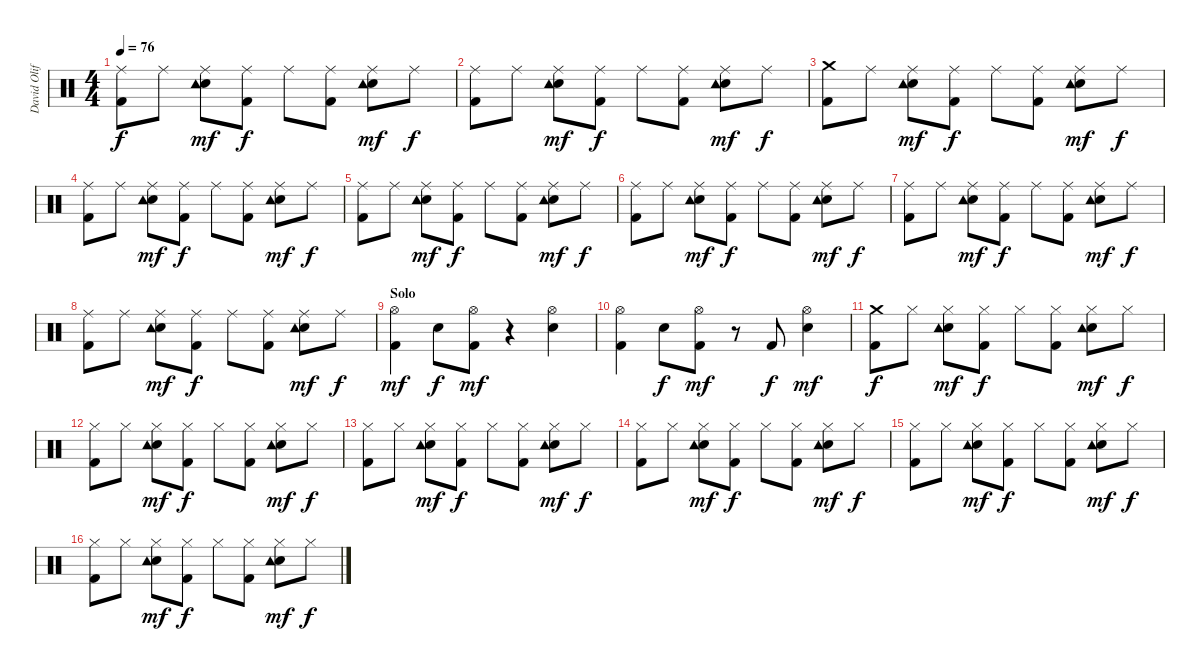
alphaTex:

\track ("David Oliffe (Drum)" "David Olif") {instrument percussion}
\staff {score}
\articulation defaults
\ts (4 4)
\tempo 76
\clef neutral
\ks c
("Ride (middle)" "Kick (hit) 2").8{dy f} "Ride (middle)".8 ("Ride (middle)" "Electric Snare (hit)" "Tambourine (hit)").8{dy mf} ("Ride (middle)" "Kick (hit) 2").8{dy f} "Ride (middle)".8 ("Ride (middle)" "Kick (hit) 2").8 ("Ride (middle)" "Electric Snare (hit)" "Tambourine (hit)").8{dy mf} "Ride (middle)".8{dy f} |
("Ride (middle)" "Kick (hit) 2").8 "Ride (middle)".8 ("Ride (middle)" "Electric Snare (hit)" "Tambourine (hit)").8{dy mf} ("Ride (middle)" "Kick (hit) 2").8{dy f} "Ride (middle)".8 ("Ride (middle)" "Kick (hit) 2").8 ("Ride (middle)" "Electric Snare (hit)" "Tambourine (hit)").8{dy mf} "Ride (middle)".8{dy f} |
("Crash medium (hit)" "Kick (hit) 2").8 "Ride (middle)".8 ("Ride (middle)" "Electric Snare (hit)" "Tambourine (hit)").8{dy mf} ("Ride (middle)" "Kick (hit) 2").8{dy f} "Ride (middle)".8 ("Ride (middle)" "Kick (hit) 2").8 ("Ride (middle)" "Electric Snare (hit)" "Tambourine (hit)").8{dy mf} "Ride (middle)".8{dy f} |
("Ride (middle)" "Kick (hit) 2").8 "Ride (middle)".8 ("Ride (middle)" "Electric Snare (hit)" "Tambourine (hit)").8{dy mf} ("Ride (middle)" "Kick (hit) 2").8{dy f} "Ride (middle)".8 ("Ride (middle)" "Kick (hit) 2").8 ("Ride (middle)" "Electric Snare (hit)" "Tambourine (hit)").8{dy mf} "Ride (middle)".8{dy f} |
("Ride (middle)" "Kick (hit) 2").8 "Ride (middle)".8 ("Ride (middle)" "Electric Snare (hit)" "Tambourine (hit)").8{dy mf} ("Ride (middle)" "Kick (hit) 2").8{dy f} "Ride (middle)".8 ("Ride (middle)" "Kick (hit) 2").8 ("Ride (middle)" "Electric Snare (hit)" "Tambourine (hit)").8{dy mf} "Ride (middle)".8{dy f} |
("Ride (middle)" "Kick (hit) 2").8 "Ride (middle)".8 ("Ride (middle)" "Electric Snare (hit)" "Tambourine (hit)").8{dy mf} ("Ride (middle)" "Kick (hit) 2").8{dy f} "Ride (middle)".8 ("Ride (middle)" "Kick (hit) 2").8 ("Ride (middle)" "Electric Snare (hit)" "Tambourine (hit)").8{dy mf} "Ride (middle)".8{dy f} |
("Ride (middle)" "Kick (hit) 2").8 "Ride (middle)".8 ("Ride (middle)" "Electric Snare (hit)" "Tambourine (hit)").8{dy mf} ("Ride (middle)" "Kick (hit) 2").8{dy f} "Ride (middle)".8 ("Ride (middle)" "Kick (hit) 2").8 ("Ride (middle)" "Electric Snare (hit)" "Tambourine (hit)").8{dy mf} "Ride (middle)".8{dy f} |
("Ride (middle)" "Kick (hit) 2").8 "Ride (middle)".8 ("Ride (middle)" "Electric Snare (hit)" "Tambourine (hit)").8{dy mf} ("Ride (middle)" "Kick (hit) 2").8{dy f} "Ride (middle)".8 ("Ride (middle)" "Kick (hit) 2").8 ("Ride (middle)" "Electric Snare (hit)" "Tambourine (hit)").8{dy mf} "Ride (middle)".8{dy f} |
\section ("" "Solo")
("Hi-Hat (open)" "Kick (hit) 2").4{dy mf} "Electric Snare (hit)".8{dy f} ("Hi-Hat (open)" "Kick (hit) 2").8{dy mf} r.4 ("Hi-Hat (open)" "Electric Snare (hit)").4 |
("Hi-Hat (open)" "Kick (hit) 2").4 "Electric Snare (hit)".8{dy f} ("Hi-Hat (open)" "Kick (hit) 2").8{dy mf} r.8 "Kick (hit) 2".8{dy f} ("Hi-Hat (open)" "Electric Snare (hit)").4{dy mf} |
("Crash medium (hit)" "Kick (hit) 2").8{dy f} "Hi-Hat (closed)".8 ("Hi-Hat (closed)" "Electric Snare (hit)" "Tambourine (hit)").8{dy mf} ("Hi-Hat (closed)" "Kick (hit) 2").8{dy f} "Hi-Hat (closed)".8 ("Hi-Hat (closed)" "Kick (hit) 2").8 ("Hi-Hat (closed)" "Electric Snare (hit)" "Tambourine (hit)").8{dy mf} "Hi-Hat (closed)".8{dy f} |
("Hi-Hat (closed)" "Kick (hit) 2").8 "Hi-Hat (closed)".8 ("Hi-Hat (closed)" "Electric Snare (hit)" "Tambourine (hit)").8{dy mf} ("Hi-Hat (closed)" "Kick (hit) 2").8{dy f} "Hi-Hat (closed)".8 ("Hi-Hat (closed)" "Kick (hit) 2").8 ("Hi-Hat (closed)" "Electric Snare (hit)" "Tambourine (hit)").8{dy mf} "Hi-Hat (closed)".8{dy f} |
("Hi-Hat (closed)" "Kick (hit) 2").8 "Hi-Hat (closed)".8 ("Hi-Hat (closed)" "Electric Snare (hit)" "Tambourine (hit)").8{dy mf} ("Hi-Hat (closed)" "Kick (hit) 2").8{dy f} "Hi-Hat (closed)".8 ("Hi-Hat (closed)" "Kick (hit) 2").8 ("Hi-Hat (closed)" "Electric Snare (hit)" "Tambourine (hit)").8{dy mf} "Hi-Hat (closed)".8{dy f} |
("Hi-Hat (closed)" "Kick (hit) 2").8 "Hi-Hat (closed)".8 ("Hi-Hat (closed)" "Electric Snare (hit)" "Tambourine (hit)").8{dy mf} ("Hi-Hat (closed)" "Kick (hit) 2").8{dy f} "Hi-Hat (closed)".8 ("Hi-Hat (closed)" "Kick (hit) 2").8 ("Hi-Hat (closed)" "Electric Snare (hit)" "Tambourine (hit)").8{dy mf} "Hi-Hat (closed)".8{dy f} |
("Hi-Hat (closed)" "Kick (hit) 2").8 "Hi-Hat (closed)".8 ("Hi-Hat (closed)" "Electric Snare (hit)" "Tambourine (hit)").8{dy mf} ("Hi-Hat (closed)" "Kick (hit) 2").8{dy f} "Hi-Hat (closed)".8 ("Hi-Hat (closed)" "Kick (hit) 2").8 ("Hi-Hat (closed)" "Electric Snare (hit)" "Tambourine (hit)").8{dy mf} "Hi-Hat (closed)".8{dy f} |
("Hi-Hat (closed)" "Kick (hit) 2").8 "Hi-Hat (closed)".8 ("Hi-Hat (closed)" "Electric Snare (hit)" "Tambourine (hit)").8{dy mf} ("Hi-Hat (closed)" "Kick (hit) 2").8{dy f} "Hi-Hat (closed)".8 ("Hi-Hat (closed)" "Kick (hit) 2").8 ("Hi-Hat (closed)" "Electric Snare (hit)" "Tambourine (hit)").8{dy mf} "Hi-Hat (closed)".8{dy f}
